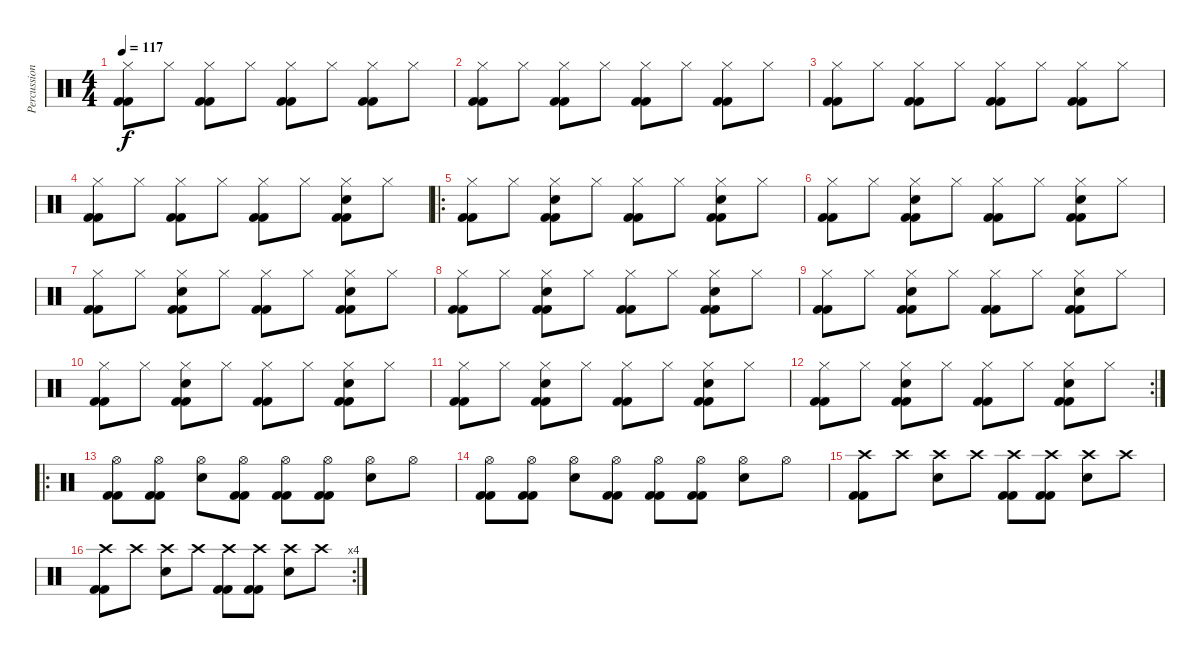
\track ("Percussions" "Percussion") {instrument percussion}
\staff {score}
\articulation defaults
\ts (4 4)
\tempo 117
\clef neutral
\ks c
("Kick (hit) 2" "Kick (hit) 2" "Hi-Hat (closed)").8{dy f} "Hi-Hat (closed)".8 ("Kick (hit) 2" "Kick (hit) 2" "Hi-Hat (closed)").8 "Hi-Hat (closed)".8 ("Kick (hit) 2" "Kick (hit) 2" "Hi-Hat (closed)").8 "Hi-Hat (closed)".8 ("Kick (hit) 2" "Kick (hit) 2" "Hi-Hat (closed)").8 "Hi-Hat (closed)".8 |
("Kick (hit) 2" "Kick (hit) 2" "Hi-Hat (closed)").8 "Hi-Hat (closed)".8 ("Kick (hit) 2" "Kick (hit) 2" "Hi-Hat (closed)").8 "Hi-Hat (closed)".8 ("Kick (hit) 2" "Kick (hit) 2" "Hi-Hat (closed)").8 "Hi-Hat (closed)".8 ("Kick (hit) 2" "Kick (hit) 2" "Hi-Hat (closed)").8 "Hi-Hat (closed)".8 |
("Kick (hit) 2" "Kick (hit) 2" "Hi-Hat (closed)").8 "Hi-Hat (closed)".8 ("Kick (hit) 2" "Kick (hit) 2" "Hi-Hat (closed)").8 "Hi-Hat (closed)".8 ("Kick (hit) 2" "Kick (hit) 2" "Hi-Hat (closed)").8 "Hi-Hat (closed)".8 ("Kick (hit) 2" "Kick (hit) 2" "Hi-Hat (closed)").8 "Hi-Hat (closed)".8 |
("Kick (hit) 2" "Kick (hit) 2" "Hi-Hat (closed)").8 "Hi-Hat (closed)".8 ("Kick (hit) 2" "Kick (hit) 2" "Hi-Hat (closed)").8 "Hi-Hat (closed)".8 ("Kick (hit) 2" "Kick (hit) 2" "Hi-Hat (closed)").8 "Hi-Hat (closed)".8 ("Kick (hit) 2" "Kick (hit) 2" "Snare (hit) 2" "Hi-Hat (closed)").8 "Hi-Hat (closed)".8 |
\ro
("Kick (hit) 2" "Kick (hit) 2" "Hi-Hat (closed)").8 "Hi-Hat (closed)".8 ("Kick (hit) 2" "Kick (hit) 2" "Snare (hit) 2" "Hi-Hat (closed)").8 "Hi-Hat (closed)".8 ("Kick (hit) 2" "Kick (hit) 2" "Hi-Hat (closed)").8 "Hi-Hat (closed)".8 ("Kick (hit) 2" "Kick (hit) 2" "Snare (hit) 2" "Hi-Hat (closed)").8 "Hi-Hat (closed)".8 |
("Kick (hit) 2" "Kick (hit) 2" "Hi-Hat (closed)").8 "Hi-Hat (closed)".8 ("Kick (hit) 2" "Kick (hit) 2" "Snare (hit) 2" "Hi-Hat (closed)").8 "Hi-Hat (closed)".8 ("Kick (hit) 2" "Kick (hit) 2" "Hi-Hat (closed)").8 "Hi-Hat (closed)".8 ("Kick (hit) 2" "Kick (hit) 2" "Snare (hit) 2" "Hi-Hat (closed)").8 "Hi-Hat (closed)".8 |
("Kick (hit) 2" "Kick (hit) 2" "Hi-Hat (closed)").8 "Hi-Hat (closed)".8 ("Kick (hit) 2" "Kick (hit) 2" "Snare (hit) 2" "Hi-Hat (closed)").8 "Hi-Hat (closed)".8 ("Kick (hit) 2" "Kick (hit) 2" "Hi-Hat (closed)").8 "Hi-Hat (closed)".8 ("Kick (hit) 2" "Kick (hit) 2" "Snare (hit) 2" "Hi-Hat (closed)").8 "Hi-Hat (closed)".8 |
("Kick (hit) 2" "Kick (hit) 2" "Hi-Hat (closed)").8 "Hi-Hat (closed)".8 ("Kick (hit) 2" "Kick (hit) 2" "Snare (hit) 2" "Hi-Hat (closed)").8 "Hi-Hat (closed)".8 ("Kick (hit) 2" "Kick (hit) 2" "Hi-Hat (closed)").8 "Hi-Hat (closed)".8 ("Kick (hit) 2" "Kick (hit) 2" "Snare (hit) 2" "Hi-Hat (closed)").8 "Hi-Hat (closed)".8 |
("Kick (hit) 2" "Kick (hit) 2" "Hi-Hat (closed)").8 "Hi-Hat (closed)".8 ("Kick (hit) 2" "Kick (hit) 2" "Snare (hit) 2" "Hi-Hat (closed)").8 "Hi-Hat (closed)".8 ("Kick (hit) 2" "Kick (hit) 2" "Hi-Hat (closed)").8 "Hi-Hat (closed)".8 ("Kick (hit) 2" "Kick (hit) 2" "Snare (hit) 2" "Hi-Hat (closed)").8 "Hi-Hat (closed)".8 |
("Kick (hit) 2" "Kick (hit) 2" "Hi-Hat (closed)").8 "Hi-Hat (closed)".8 ("Kick (hit) 2" "Kick (hit) 2" "Snare (hit) 2" "Hi-Hat (closed)").8 "Hi-Hat (closed)".8 ("Kick (hit) 2" "Kick (hit) 2" "Hi-Hat (closed)").8 "Hi-Hat (closed)".8 ("Kick (hit) 2" "Kick (hit) 2" "Snare (hit) 2" "Hi-Hat (closed)").8 "Hi-Hat (closed)".8 |
("Kick (hit) 2" "Kick (hit) 2" "Hi-Hat (closed)").8 "Hi-Hat (closed)".8 ("Kick (hit) 2" "Kick (hit) 2" "Snare (hit) 2" "Hi-Hat (closed)").8 "Hi-Hat (closed)".8 ("Kick (hit) 2" "Kick (hit) 2" "Hi-Hat (closed)").8 "Hi-Hat (closed)".8 ("Kick (hit) 2" "Kick (hit) 2" "Snare (hit) 2" "Hi-Hat (closed)").8 "Hi-Hat (closed)".8 |
\rc 2
("Kick (hit) 2" "Kick (hit) 2" "Hi-Hat (closed)").8 "Hi-Hat (closed)".8 ("Kick (hit) 2" "Kick (hit) 2" "Snare (hit) 2" "Hi-Hat (closed)").8 "Hi-Hat (closed)".8 ("Kick (hit) 2" "Kick (hit) 2" "Hi-Hat (closed)").8 "Hi-Hat (closed)".8 ("Kick (hit) 2" "Kick (hit) 2" "Snare (hit) 2" "Hi-Hat (closed)").8 "Hi-Hat (closed)".8 |
\ro
("Kick (hit) 2" "Kick (hit) 2" "Hi-Hat (open)").8 ("Kick (hit) 2" "Kick (hit) 2" "Hi-Hat (open)").8 ("Snare (hit) 2" "Hi-Hat (open)").8 ("Kick (hit) 2" "Kick (hit) 2" "Hi-Hat (open)").8 ("Kick (hit) 2" "Kick (hit) 2" "Hi-Hat (open)").8 ("Kick (hit) 2" "Kick (hit) 2" "Hi-Hat (open)").8 ("Snare (hit) 2" "Hi-Hat (open)").8 "Hi-Hat (open)".8 |
("Kick (hit) 2" "Kick (hit) 2" "Hi-Hat (open)").8 ("Kick (hit) 2" "Kick (hit) 2" "Hi-Hat (open)").8 ("Snare (hit) 2" "Hi-Hat (open)").8 ("Kick (hit) 2" "Kick (hit) 2" "Hi-Hat (open)").8 ("Kick (hit) 2" "Kick (hit) 2" "Hi-Hat (open)").8 ("Kick (hit) 2" "Kick (hit) 2" "Hi-Hat (open)").8 ("Snare (hit) 2" "Hi-Hat (open)").8 "Hi-Hat (open)".8 |
("Kick (hit) 2" "Kick (hit) 2" "Crash high (hit)").8 "Crash high (hit)".8 ("Snare (hit) 2" "Crash high (hit)").8 "Crash high (hit)".8 ("Kick (hit) 2" "Kick (hit) 2" "Crash high (hit)").8 ("Kick (hit) 2" "Kick (hit) 2" "Crash high (hit)").8 ("Snare (hit) 2" "Crash high (hit)").8 "Crash high (hit)".8 |
\rc 4
("Kick (hit) 2" "Kick (hit) 2" "Crash high (hit)").8 "Crash high (hit)".8 ("Snare (hit) 2" "Crash high (hit)").8 "Crash high (hit)".8 ("Kick (hit) 2" "Kick (hit) 2" "Crash high (hit)").8 ("Kick (hit) 2" "Kick (hit) 2" "Crash high (hit)").8 ("Snare (hit) 2" "Crash high (hit)").8 "Crash high (hit)".8
